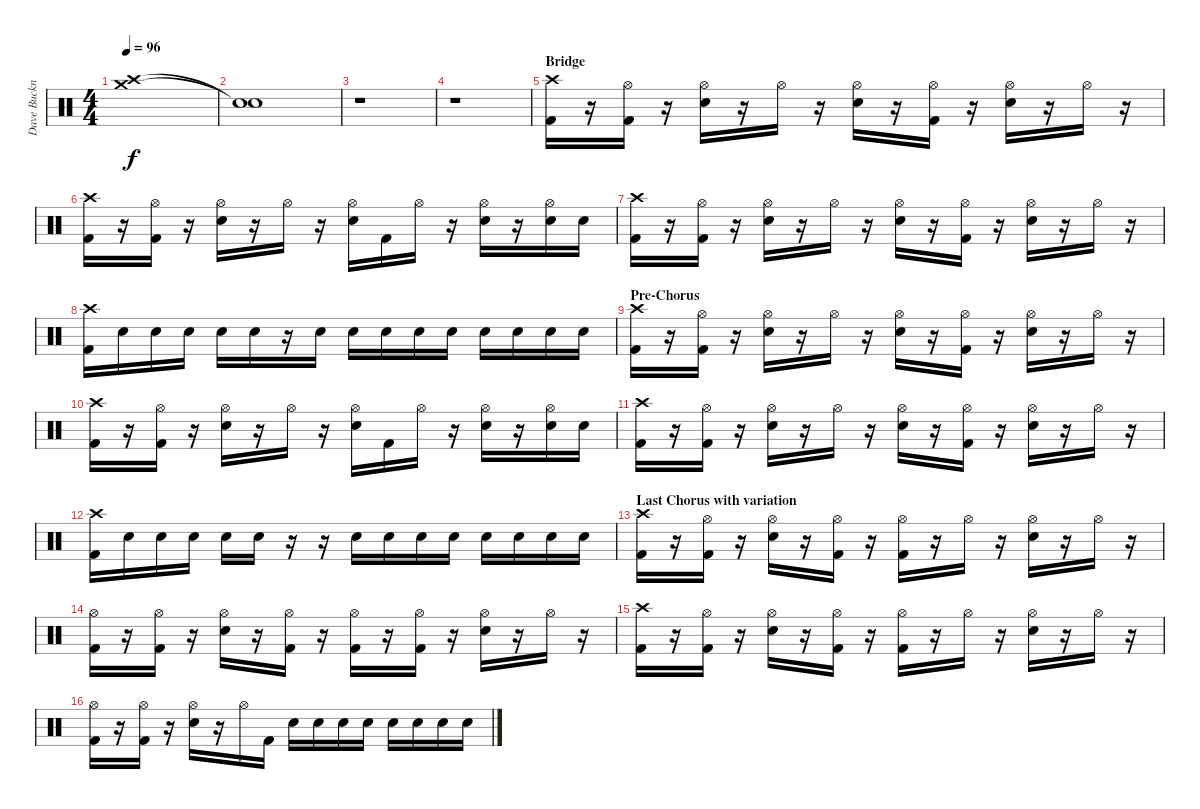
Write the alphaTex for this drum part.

\track ("Dave Buckner - Drums" "Dave Buckn") {instrument percussion}
\staff {score}
\articulation defaults
\ts (4 4)
\tempo 96
\clef neutral
\ks c
("Crash high (hit)" "Crash medium (hit)").1{dy f} |
("Snare (hit)"{t} "Snare (hit)"{t}).1 |
r.1 |
r.1 |
\section ("" "Bridge")
("Crash high (hit)" "Kick (hit) 2").16 r.16 ("Hi-Hat (open)" "Kick (hit) 2").16 r.16 ("Hi-Hat (open)" "Snare (hit) 2").16 r.16 "Hi-Hat (open)".16 r.16 ("Hi-Hat (open)" "Snare (hit) 2").16 r.16 ("Hi-Hat (open)" "Kick (hit) 2").16 r.16 ("Hi-Hat (open)" "Snare (hit) 2").16 r.16 "Hi-Hat (open)".16 r.16 |
("Crash high (hit)" "Kick (hit) 2").16 r.16 ("Hi-Hat (open)" "Kick (hit) 2").16 r.16 ("Hi-Hat (open)" "Snare (hit) 2").16 r.16 "Hi-Hat (open)".16 r.16 ("Hi-Hat (open)" "Snare (hit) 2").16 "Kick (hit) 2".16 "Hi-Hat (open)".16 r.16 ("Hi-Hat (open)" "Snare (hit) 2").16 r.16 ("Hi-Hat (open)" "Snare (hit) 2").16 "Snare (hit) 2".16 |
("Crash high (hit)" "Kick (hit) 2").16 r.16 ("Hi-Hat (open)" "Kick (hit) 2").16 r.16 ("Hi-Hat (open)" "Snare (hit) 2").16 r.16 "Hi-Hat (open)".16 r.16 ("Hi-Hat (open)" "Snare (hit) 2").16 r.16 ("Hi-Hat (open)" "Kick (hit) 2").16 r.16 ("Hi-Hat (open)" "Snare (hit) 2").16 r.16 "Hi-Hat (open)".16 r.16 |
("Crash high (hit)" "Kick (hit) 2").16 "Snare (hit) 2".16 "Snare (hit) 2".16 "Snare (hit) 2".16 "Snare (hit) 2".16 "Snare (hit) 2".16 r.16 "Snare (hit) 2".16 "Snare (hit) 2".16 "Snare (hit) 2".16 "Snare (hit) 2".16 "Snare (hit) 2".16 "Snare (hit) 2".16 "Snare (hit) 2".16 "Snare (hit) 2".16 "Snare (hit) 2".16 |
\section ("" "Pre-Chorus ")
("Crash high (hit)" "Kick (hit) 2").16 r.16 ("Hi-Hat (open)" "Kick (hit) 2").16 r.16 ("Hi-Hat (open)" "Snare (hit) 2").16 r.16 "Hi-Hat (open)".16 r.16 ("Hi-Hat (open)" "Snare (hit) 2").16 r.16 ("Hi-Hat (open)" "Kick (hit) 2").16 r.16 ("Hi-Hat (open)" "Snare (hit) 2").16 r.16 "Hi-Hat (open)".16 r.16 |
("Crash high (hit)" "Kick (hit) 2").16 r.16 ("Hi-Hat (open)" "Kick (hit) 2").16 r.16 ("Hi-Hat (open)" "Snare (hit) 2").16 r.16 "Hi-Hat (open)".16 r.16 ("Hi-Hat (open)" "Snare (hit) 2").16 "Kick (hit) 2".16 "Hi-Hat (open)".16 r.16 ("Hi-Hat (open)" "Snare (hit) 2").16 r.16 ("Hi-Hat (open)" "Snare (hit) 2").16 "Snare (hit) 2".16 |
("Crash high (hit)" "Kick (hit) 2").16 r.16 ("Hi-Hat (open)" "Kick (hit) 2").16 r.16 ("Hi-Hat (open)" "Snare (hit) 2").16 r.16 "Hi-Hat (open)".16 r.16 ("Hi-Hat (open)" "Snare (hit) 2").16 r.16 ("Hi-Hat (open)" "Kick (hit) 2").16 r.16 ("Hi-Hat (open)" "Snare (hit) 2").16 r.16 "Hi-Hat (open)".16 r.16 |
("Crash high (hit)" "Kick (hit) 2").16 "Snare (hit) 2".16 "Snare (hit) 2".16 "Snare (hit) 2".16 "Snare (hit) 2".16 "Snare (hit) 2".16 r.16 r.16 "Snare (hit) 2".16 "Snare (hit) 2".16 "Snare (hit) 2".16 "Snare (hit) 2".16 "Snare (hit) 2".16 "Snare (hit) 2".16 "Snare (hit) 2".16 "Snare (hit) 2".16 |
\section ("" "Last Chorus with variation")
("Crash high (hit)" "Kick (hit) 2").16 r.16 ("Hi-Hat (open)" "Kick (hit) 2").16 r.16 ("Hi-Hat (open)" "Snare (hit) 2").16 r.16 ("Hi-Hat (open)" "Kick (hit) 2").16 r.16 ("Hi-Hat (open)" "Kick (hit) 2").16 r.16 "Hi-Hat (open)".16 r.16 ("Hi-Hat (open)" "Snare (hit) 2").16 r.16 "Hi-Hat (open)".16 r.16 |
("Hi-Hat (open)" "Kick (hit) 2").16 r.16 ("Hi-Hat (open)" "Kick (hit) 2").16 r.16 ("Hi-Hat (open)" "Snare (hit) 2").16 r.16 ("Hi-Hat (open)" "Kick (hit) 2").16 r.16 ("Hi-Hat (open)" "Kick (hit) 2").16 r.16 ("Hi-Hat (open)" "Kick (hit) 2").16 r.16 ("Hi-Hat (open)" "Snare (hit) 2").16 r.16 "Hi-Hat (open)".16 r.16 |
("Crash high (hit)" "Kick (hit) 2").16 r.16 ("Hi-Hat (open)" "Kick (hit) 2").16 r.16 ("Hi-Hat (open)" "Snare (hit) 2").16 r.16 ("Hi-Hat (open)" "Kick (hit) 2").16 r.16 ("Hi-Hat (open)" "Kick (hit) 2").16 r.16 "Hi-Hat (open)".16 r.16 ("Hi-Hat (open)" "Snare (hit) 2").16 r.16 "Hi-Hat (open)".16 r.16 |
("Hi-Hat (open)" "Kick (hit) 2").16 r.16 ("Hi-Hat (open)" "Kick (hit) 2").16 r.16 ("Hi-Hat (open)" "Snare (hit) 2").16 r.16 "Hi-Hat (open)".16 "Kick (hit) 2".16 "Snare (hit) 2".16 "Snare (hit) 2".16 "Snare (hit) 2".16 "Snare (hit) 2".16 "Snare (hit) 2".16 "Snare (hit) 2".16 "Snare (hit) 2".16 "Snare (hit) 2".16
